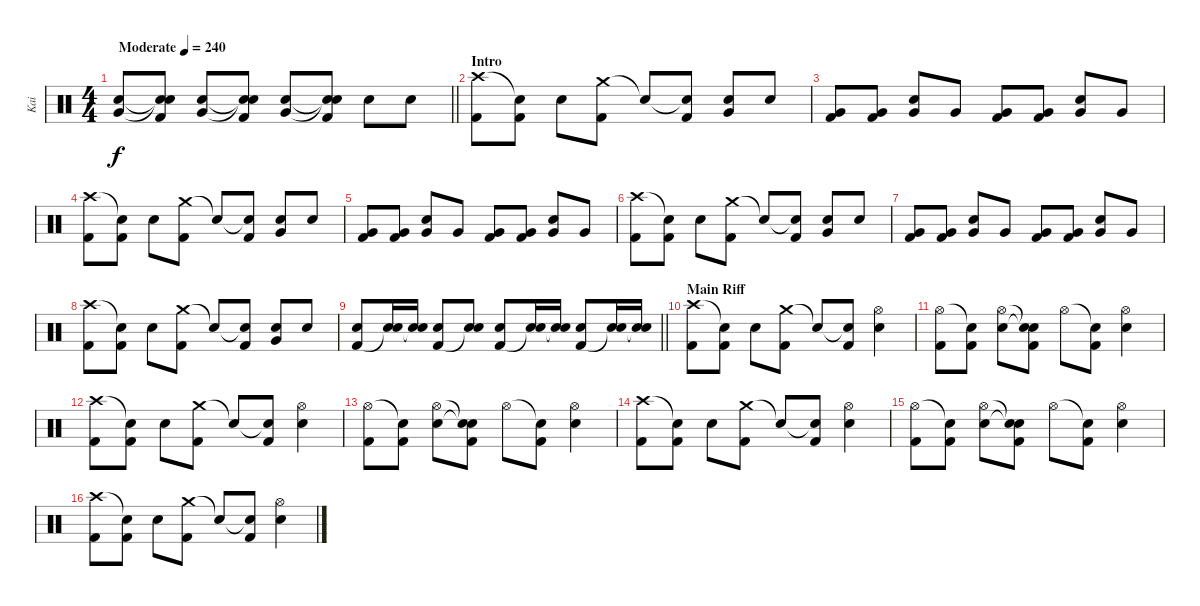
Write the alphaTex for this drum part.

\track ("Kai" "Kai") {instrument percussion}
\staff {score}
\articulation defaults
\ts (4 4)
\tempo (240 "Moderate")
\clef neutral
\barLineRight lightlight
\ks c
("Snare (hit) 2" "Very Low Tom (hit)").8{dy f} ("Snare (hit)"{t} "Snare (hit)"{t} "Kick (hit) 2").8 ("Snare (hit) 2" "Very Low Tom (hit)").8 ("Snare (hit)"{t} "Snare (hit)"{t} "Kick (hit) 2").8 ("Snare (hit) 2" "Very Low Tom (hit)").8 ("Snare (hit)"{t} "Snare (hit)"{t} "Kick (hit) 2").8 "Snare (hit) 2".8 "Snare (hit) 2".8 |
\section ("" "Intro")
("Crash high (hit)" "Kick (hit) 2").8 ("Snare (hit)"{t} "Kick (hit) 2").8 "Snare (hit) 2".8 ("Crash medium (hit)" "Kick (hit) 2").8 "Snare (hit)"{t}.8 ("Snare (hit)"{t} "Kick (hit) 2").8 ("Snare (hit) 2" "Very Low Tom (hit)").8 "Snare (hit) 2".8 |
("Very Low Tom (hit)" "Kick (hit) 2").8 ("Very Low Tom (hit)" "Kick (hit) 2").8 ("Snare (hit) 2" "Very Low Tom (hit)").8 "Very Low Tom (hit)".8 ("Very Low Tom (hit)" "Kick (hit) 2").8 ("Very Low Tom (hit)" "Kick (hit) 2").8 ("Snare (hit) 2" "Very Low Tom (hit)").8 "Very Low Tom (hit)".8 |
("Crash high (hit)" "Kick (hit) 2").8 ("Snare (hit)"{t} "Kick (hit) 2").8 "Snare (hit) 2".8 ("Crash medium (hit)" "Kick (hit) 2").8 "Snare (hit)"{t}.8 ("Snare (hit)"{t} "Kick (hit) 2").8 ("Snare (hit) 2" "Very Low Tom (hit)").8 "Snare (hit) 2".8 |
("Very Low Tom (hit)" "Kick (hit) 2").8 ("Very Low Tom (hit)" "Kick (hit) 2").8 ("Snare (hit) 2" "Very Low Tom (hit)").8 "Very Low Tom (hit)".8 ("Very Low Tom (hit)" "Kick (hit) 2").8 ("Very Low Tom (hit)" "Kick (hit) 2").8 ("Snare (hit) 2" "Very Low Tom (hit)").8 "Very Low Tom (hit)".8 |
("Crash high (hit)" "Kick (hit) 2").8 ("Snare (hit)"{t} "Kick (hit) 2").8 "Snare (hit) 2".8 ("Crash medium (hit)" "Kick (hit) 2").8 "Snare (hit)"{t}.8 ("Snare (hit)"{t} "Kick (hit) 2").8 ("Snare (hit) 2" "Very Low Tom (hit)").8 "Snare (hit) 2".8 |
("Very Low Tom (hit)" "Kick (hit) 2").8 ("Very Low Tom (hit)" "Kick (hit) 2").8 ("Snare (hit) 2" "Very Low Tom (hit)").8 "Very Low Tom (hit)".8 ("Very Low Tom (hit)" "Kick (hit) 2").8 ("Very Low Tom (hit)" "Kick (hit) 2").8 ("Snare (hit) 2" "Very Low Tom (hit)").8 "Very Low Tom (hit)".8 |
("Crash high (hit)" "Kick (hit) 2").8 ("Snare (hit)"{t} "Kick (hit) 2").8 "Snare (hit) 2".8 ("Crash medium (hit)" "Kick (hit) 2").8 "Snare (hit)"{t}.8 ("Snare (hit)"{t} "Kick (hit) 2").8 ("Snare (hit) 2" "Very Low Tom (hit)").8 "Snare (hit) 2".8 |
\barLineRight lightlight
("Snare (hit) 2" "Kick (hit) 2").8 ("Snare (hit) 2" "Snare (hit)"{t}).16 ("Snare (hit) 2" "Snare (hit)"{t}).16 ("Snare (hit) 2" "Kick (hit) 2").8 ("Snare (hit) 2" "Snare (hit)"{t}).8 ("Snare (hit) 2" "Kick (hit) 2").8 ("Snare (hit) 2" "Snare (hit)"{t}).16 ("Snare (hit) 2" "Snare (hit)"{t}).16 ("Snare (hit) 2" "Kick (hit) 2").8 ("Snare (hit) 2" "Snare (hit)"{t}).16 ("Snare (hit) 2" "Snare (hit)"{t}).16 |
\section ("" "Main Riff")
("Crash high (hit)" "Kick (hit) 2").8 ("Snare (hit)"{t} "Kick (hit) 2").8 "Snare (hit) 2".8 ("Crash medium (hit)" "Kick (hit) 2").8 "Snare (hit)"{t}.8 ("Snare (hit)"{t} "Kick (hit) 2").8 ("Hi-Hat (open)" "Snare (hit) 2").4 |
("Hi-Hat (open)" "Kick (hit) 2").8 ("Snare (hit)"{t} "Kick (hit) 2").8 ("Hi-Hat (open)" "Snare (hit) 2").8 ("Snare (hit)"{t} "Snare (hit)"{t} "Kick (hit) 2").8 "Hi-Hat (open)".8 ("Snare (hit)"{t} "Kick (hit) 2").8 ("Hi-Hat (open)" "Snare (hit) 2").4 |
("Crash high (hit)" "Kick (hit) 2").8 ("Snare (hit)"{t} "Kick (hit) 2").8 "Snare (hit) 2".8 ("Crash medium (hit)" "Kick (hit) 2").8 "Snare (hit)"{t}.8 ("Snare (hit)"{t} "Kick (hit) 2").8 ("Hi-Hat (open)" "Snare (hit) 2").4 |
("Hi-Hat (open)" "Kick (hit) 2").8 ("Snare (hit)"{t} "Kick (hit) 2").8 ("Hi-Hat (open)" "Snare (hit) 2").8 ("Snare (hit)"{t} "Snare (hit)"{t} "Kick (hit) 2").8 "Hi-Hat (open)".8 ("Snare (hit)"{t} "Kick (hit) 2").8 ("Hi-Hat (open)" "Snare (hit) 2").4 |
("Crash high (hit)" "Kick (hit) 2").8 ("Snare (hit)"{t} "Kick (hit) 2").8 "Snare (hit) 2".8 ("Crash medium (hit)" "Kick (hit) 2").8 "Snare (hit)"{t}.8 ("Snare (hit)"{t} "Kick (hit) 2").8 ("Hi-Hat (open)" "Snare (hit) 2").4 |
("Hi-Hat (open)" "Kick (hit) 2").8 ("Snare (hit)"{t} "Kick (hit) 2").8 ("Hi-Hat (open)" "Snare (hit) 2").8 ("Snare (hit)"{t} "Snare (hit)"{t} "Kick (hit) 2").8 "Hi-Hat (open)".8 ("Snare (hit)"{t} "Kick (hit) 2").8 ("Hi-Hat (open)" "Snare (hit) 2").4 |
("Crash high (hit)" "Kick (hit) 2").8 ("Snare (hit)"{t} "Kick (hit) 2").8 "Snare (hit) 2".8 ("Crash medium (hit)" "Kick (hit) 2").8 "Snare (hit)"{t}.8 ("Snare (hit)"{t} "Kick (hit) 2").8 ("Hi-Hat (open)" "Snare (hit) 2").4
